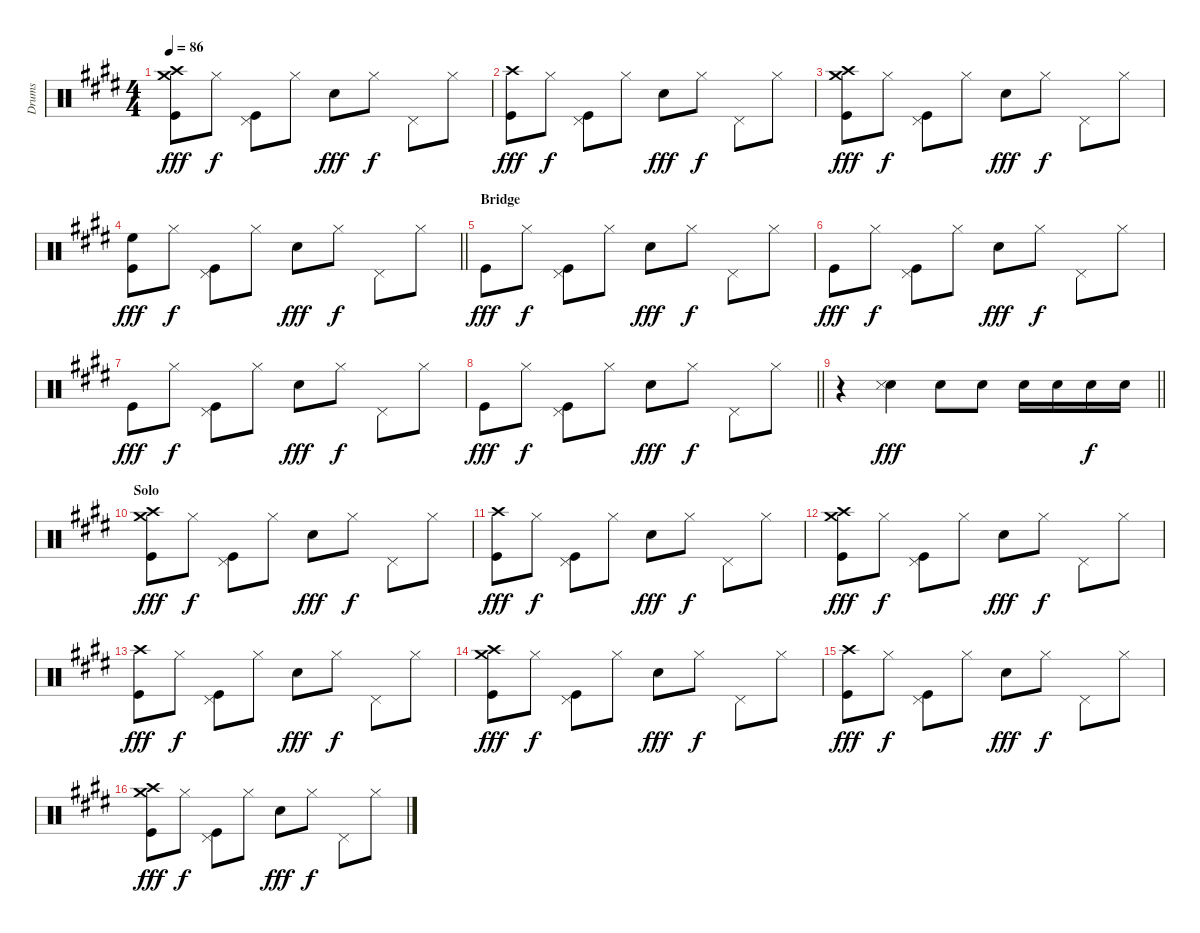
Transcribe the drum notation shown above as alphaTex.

\track ("Drums" "Drums") {instrument percussion}
\staff {score}
\articulation defaults
\ts (4 4)
\tempo 86
\clef neutral
\ks e
("Kick (hit)" "Crash high (hit)" "Crash medium (hit)").8{dy fff} "Hi-Hat (closed)".8{dy f} ("Kick (hit)" "Pedal Hi-Hat (hit)").8 "Hi-Hat (closed)".8 "Snare (hit) 2".8{dy fff} "Hi-Hat (closed)".8{dy f} "Pedal Hi-Hat (hit)".8 "Hi-Hat (closed)".8 |
("Kick (hit)" "Crash high (hit)").8{dy fff} "Hi-Hat (closed)".8{dy f} ("Kick (hit)" "Pedal Hi-Hat (hit)").8 "Hi-Hat (closed)".8 "Snare (hit) 2".8{dy fff} "Hi-Hat (closed)".8{dy f} "Pedal Hi-Hat (hit)".8 "Hi-Hat (closed)".8 |
("Kick (hit)" "Crash high (hit)" "Crash medium (hit)").8{dy fff} "Hi-Hat (closed)".8{dy f} ("Kick (hit)" "Pedal Hi-Hat (hit)").8 "Hi-Hat (closed)".8 "Snare (hit) 2".8{dy fff} "Hi-Hat (closed)".8{dy f} "Pedal Hi-Hat (hit)".8 "Hi-Hat (closed)".8 |
\barLineRight lightlight
("Kick (hit)" "High Floor Tom (hit)").8{dy fff} "Hi-Hat (closed)".8{dy f} ("Kick (hit)" "Pedal Hi-Hat (hit)").8 "Hi-Hat (closed)".8 "Snare (hit) 2".8{dy fff} "Hi-Hat (closed)".8{dy f} "Pedal Hi-Hat (hit)".8 "Hi-Hat (closed)".8 |
\section ("" "Bridge")
"Kick (hit)".8{dy fff} "Hi-Hat (closed)".8{dy f} ("Kick (hit)" "Pedal Hi-Hat (hit)").8 "Hi-Hat (closed)".8 "Snare (hit) 2".8{dy fff} "Hi-Hat (closed)".8{dy f} "Pedal Hi-Hat (hit)".8 "Hi-Hat (closed)".8 |
"Kick (hit)".8{dy fff} "Hi-Hat (closed)".8{dy f} ("Kick (hit)" "Pedal Hi-Hat (hit)").8 "Hi-Hat (closed)".8 "Snare (hit) 2".8{dy fff} "Hi-Hat (closed)".8{dy f} "Pedal Hi-Hat (hit)".8 "Hi-Hat (closed)".8 |
"Kick (hit)".8{dy fff} "Hi-Hat (closed)".8{dy f} ("Kick (hit)" "Pedal Hi-Hat (hit)").8 "Hi-Hat (closed)".8 "Snare (hit) 2".8{dy fff} "Hi-Hat (closed)".8{dy f} "Pedal Hi-Hat (hit)".8 "Hi-Hat (closed)".8 |
\barLineRight lightlight "Kick (hit)".8{dy fff} "Hi-Hat (closed)".8{dy f}
("Kick (hit)" "Pedal Hi-Hat (hit)").8 "Hi-Hat (closed)".8 "Snare (hit) 2".8{dy fff} "Hi-Hat (closed)".8{dy f} "Pedal Hi-Hat (hit)".8 "Hi-Hat (closed)".8 |
\barLineRight lightlight
r.4 ("Snare (hit) 2" "Snare (side stick) 3").4{dy fff} "Snare (hit) 2".8 "Snare (hit) 2".8 "Snare (hit) 2".16 "Snare (hit) 2".16 "Snare (hit) 2".16{dy f} "Snare (hit) 2".16 |
\section ("" "Solo")
("Kick (hit)" "Crash high (hit)" "Crash medium (hit)").8{dy fff} "Hi-Hat (closed)".8{dy f} ("Kick (hit)" "Pedal Hi-Hat (hit)").8 "Hi-Hat (closed)".8 "Snare (hit) 2".8{dy fff} "Hi-Hat (closed)".8{dy f} "Pedal Hi-Hat (hit)".8 "Hi-Hat (closed)".8 |
("Kick (hit)" "Crash high (hit)").8{dy fff} "Hi-Hat (closed)".8{dy f} ("Kick (hit)" "Pedal Hi-Hat (hit)").8 "Hi-Hat (closed)".8 "Snare (hit) 2".8{dy fff} "Hi-Hat (closed)".8{dy f} "Pedal Hi-Hat (hit)".8 "Hi-Hat (closed)".8 |
("Kick (hit)" "Crash high (hit)" "Crash medium (hit)").8{dy fff} "Hi-Hat (closed)".8{dy f} ("Kick (hit)" "Pedal Hi-Hat (hit)").8 "Hi-Hat (closed)".8 "Snare (hit) 2".8{dy fff} "Hi-Hat (closed)".8{dy f} "Pedal Hi-Hat (hit)".8 "Hi-Hat (closed)".8 |
("Kick (hit)" "Crash high (hit)").8{dy fff} "Hi-Hat (closed)".8{dy f} ("Kick (hit)" "Pedal Hi-Hat (hit)").8 "Hi-Hat (closed)".8 "Snare (hit) 2".8{dy fff} "Hi-Hat (closed)".8{dy f} "Pedal Hi-Hat (hit)".8 "Hi-Hat (closed)".8 |
("Kick (hit)" "Crash high (hit)" "Crash medium (hit)").8{dy fff} "Hi-Hat (closed)".8{dy f} ("Kick (hit)" "Pedal Hi-Hat (hit)").8 "Hi-Hat (closed)".8 "Snare (hit) 2".8{dy fff} "Hi-Hat (closed)".8{dy f} "Pedal Hi-Hat (hit)".8 "Hi-Hat (closed)".8 |
("Kick (hit)" "Crash high (hit)").8{dy fff} "Hi-Hat (closed)".8{dy f} ("Kick (hit)" "Pedal Hi-Hat (hit)").8 "Hi-Hat (closed)".8 "Snare (hit) 2".8{dy fff} "Hi-Hat (closed)".8{dy f} "Pedal Hi-Hat (hit)".8 "Hi-Hat (closed)".8 |
("Kick (hit)" "Crash high (hit)" "Crash medium (hit)").8{dy fff} "Hi-Hat (closed)".8{dy f} ("Kick (hit)" "Pedal Hi-Hat (hit)").8 "Hi-Hat (closed)".8 "Snare (hit) 2".8{dy fff} "Hi-Hat (closed)".8{dy f} "Pedal Hi-Hat (hit)".8 "Hi-Hat (closed)".8
